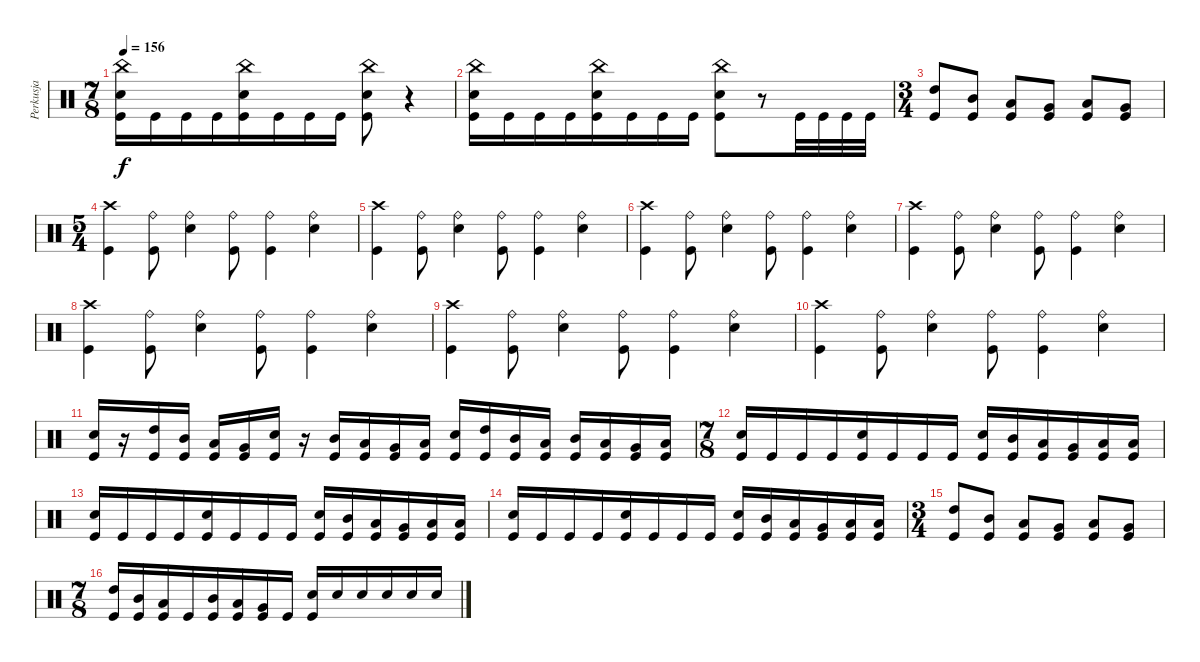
\track ("Perkusja" "Perkusja") {instrument percussion}
\staff {score}
\articulation defaults
\ts (7 8)
\tempo 156
\clef neutral
\ks c
("China (hit)" "Snare (hit) 2" "Kick (hit)").16{dy f} "Kick (hit)".16 "Kick (hit)".16 "Kick (hit)".16 ("China (hit)" "Snare (hit) 2" "Kick (hit)").16 "Kick (hit)".16 "Kick (hit)".16 "Kick (hit)".16 ("China (hit)" "Snare (hit) 2" "Kick (hit)").8 r.4 |
("China (hit)" "Snare (hit) 2" "Kick (hit)").16 "Kick (hit)".16 "Kick (hit)".16 "Kick (hit)".16 ("China (hit)" "Snare (hit) 2" "Kick (hit)").16 "Kick (hit)".16 "Kick (hit)".16 "Kick (hit)".16 ("China (hit)" "Snare (hit) 2" "Kick (hit)").8 r.8 "Kick (hit)".32 "Kick (hit)".32 "Kick (hit)".32 "Kick (hit)".32 |
\ts (3 4)
("High Tom (hit)" "Kick (hit)").8 ("Mid Tom (hit)" "Kick (hit)").8 ("Low Tom (hit)" "Kick (hit)").8 ("Very Low Tom (hit)" "Kick (hit)").8 ("Low Tom (hit)" "Kick (hit)").8 ("Very Low Tom (hit)" "Kick (hit)").8 |
\ts (5 4)
("Crash high (hit)" "Kick (hit)").4 ("Ride (bell)" "Kick (hit)").8 ("Ride (bell)" "Snare (hit) 2").4 ("Ride (bell)" "Kick (hit)").8 ("Ride (bell)" "Kick (hit)").4 ("Ride (bell)" "Snare (hit) 2").4 |
("Crash high (hit)" "Kick (hit)").4 ("Ride (bell)" "Kick (hit)").8 ("Ride (bell)" "Snare (hit) 2").4 ("Ride (bell)" "Kick (hit)").8 ("Ride (bell)" "Kick (hit)").4 ("Ride (bell)" "Snare (hit) 2").4 |
("Crash high (hit)" "Kick (hit)").4 ("Ride (bell)" "Kick (hit)").8 ("Ride (bell)" "Snare (hit) 2").4 ("Ride (bell)" "Kick (hit)").8 ("Ride (bell)" "Kick (hit)").4 ("Ride (bell)" "Snare (hit) 2").4 |
("Crash high (hit)" "Kick (hit)").4 ("Ride (bell)" "Kick (hit)").8 ("Ride (bell)" "Snare (hit) 2").4 ("Ride (bell)" "Kick (hit)").8 ("Ride (bell)" "Kick (hit)").4 ("Ride (bell)" "Snare (hit) 2").4 |
("Crash high (hit)" "Kick (hit)").4 ("Ride (bell)" "Kick (hit)").8 ("Ride (bell)" "Snare (hit) 2").4 ("Ride (bell)" "Kick (hit)").8 ("Ride (bell)" "Kick (hit)").4 ("Ride (bell)" "Snare (hit) 2").4 |
("Crash high (hit)" "Kick (hit)").4 ("Ride (bell)" "Kick (hit)").8 ("Ride (bell)" "Snare (hit) 2").4 ("Ride (bell)" "Kick (hit)").8 ("Ride (bell)" "Kick (hit)").4 ("Ride (bell)" "Snare (hit) 2").4 |
("Crash high (hit)" "Kick (hit)").4 ("Ride (bell)" "Kick (hit)").8 ("Ride (bell)" "Snare (hit) 2").4 ("Ride (bell)" "Kick (hit)").8 ("Ride (bell)" "Kick (hit)").4 ("Ride (bell)" "Snare (hit) 2").4 |
("Snare (hit) 2" "Kick (hit)").16 r.16 ("High Tom (hit)" "Kick (hit)").16 ("Mid Tom (hit)" "Kick (hit)").16 ("Low Tom (hit)" "Kick (hit)").16 ("Very Low Tom (hit)" "Kick (hit)").16 ("Snare (hit) 2" "Kick (hit)").16 r.16 ("Mid Tom (hit)" "Kick (hit)").16 ("Low Tom (hit)" "Kick (hit)").16 ("Very Low Tom (hit)" "Kick (hit)").16 ("Low Floor Tom (hit)" "Kick (hit)").16 ("Snare (hit) 2" "Kick (hit)").16 ("High Tom (hit)" "Kick (hit)").16 ("Mid Tom (hit)" "Kick (hit)").16 ("Low Tom (hit)" "Kick (hit)").16 ("Mid Tom (hit)" "Kick (hit)").16 ("Low Tom (hit)" "Kick (hit)").16 ("Very Low Tom (hit)" "Kick (hit)").16 ("Low Floor Tom (hit)" "Kick (hit)").16 |
\ts (7 8)
("Snare (hit) 2" "Kick (hit)").16 "Kick (hit)".16 "Kick (hit)".16 "Kick (hit)".16 ("Snare (hit) 2" "Kick (hit)").16 "Kick (hit)".16 "Kick (hit)".16 "Kick (hit)".16 ("Snare (hit) 2" "Kick (hit)").16 ("Mid Tom (hit)" "Kick (hit)").16 ("Low Tom (hit)" "Kick (hit)").16 ("Very Low Tom (hit)" "Kick (hit)").16 ("Low Tom (hit)" "Kick (hit)").16 ("Low Floor Tom (hit)" "Kick (hit)").16 |
("Snare (hit) 2" "Kick (hit)").16 "Kick (hit)".16 "Kick (hit)".16 "Kick (hit)".16 ("Snare (hit) 2" "Kick (hit)").16 "Kick (hit)".16 "Kick (hit)".16 "Kick (hit)".16 ("Snare (hit) 2" "Kick (hit)").16 ("Mid Tom (hit)" "Kick (hit)").16 ("Low Tom (hit)" "Kick (hit)").16 ("Very Low Tom (hit)" "Kick (hit)").16 ("Low Tom (hit)" "Kick (hit)").16 ("Low Floor Tom (hit)" "Kick (hit)").16 |
("Snare (hit) 2" "Kick (hit)").16 "Kick (hit)".16 "Kick (hit)".16 "Kick (hit)".16 ("Snare (hit) 2" "Kick (hit)").16 "Kick (hit)".16 "Kick (hit)".16 "Kick (hit)".16 ("Snare (hit) 2" "Kick (hit)").16 ("Mid Tom (hit)" "Kick (hit)").16 ("Low Tom (hit)" "Kick (hit)").16 ("Very Low Tom (hit)" "Kick (hit)").16 ("Low Tom (hit)" "Kick (hit)").16 ("Low Floor Tom (hit)" "Kick (hit)").16 |
\ts (3 4)
("High Tom (hit)" "Kick (hit)").8 ("Mid Tom (hit)" "Kick (hit)").8 ("Low Tom (hit)" "Kick (hit)").8 ("Very Low Tom (hit)" "Kick (hit)").8 ("Low Tom (hit)" "Kick (hit)").8 ("Very Low Tom (hit)" "Kick (hit)").8 |
\ts (7 8)
("High Tom (hit)" "Kick (hit)").16 ("Mid Tom (hit)" "Kick (hit)").16 ("Low Tom (hit)" "Kick (hit)").16 "Kick (hit)".16 ("Mid Tom (hit)" "Kick (hit)").16 ("Low Tom (hit)" "Kick (hit)").16 ("Very Low Tom (hit)" "Kick (hit)").16 "Kick (hit)".16 ("Snare (hit) 2" "Kick (hit)").16 "Snare (hit) 2".16 "Snare (hit) 2".16 "Snare (hit) 2".16 "Snare (hit) 2".16 "Snare (hit) 2".16
